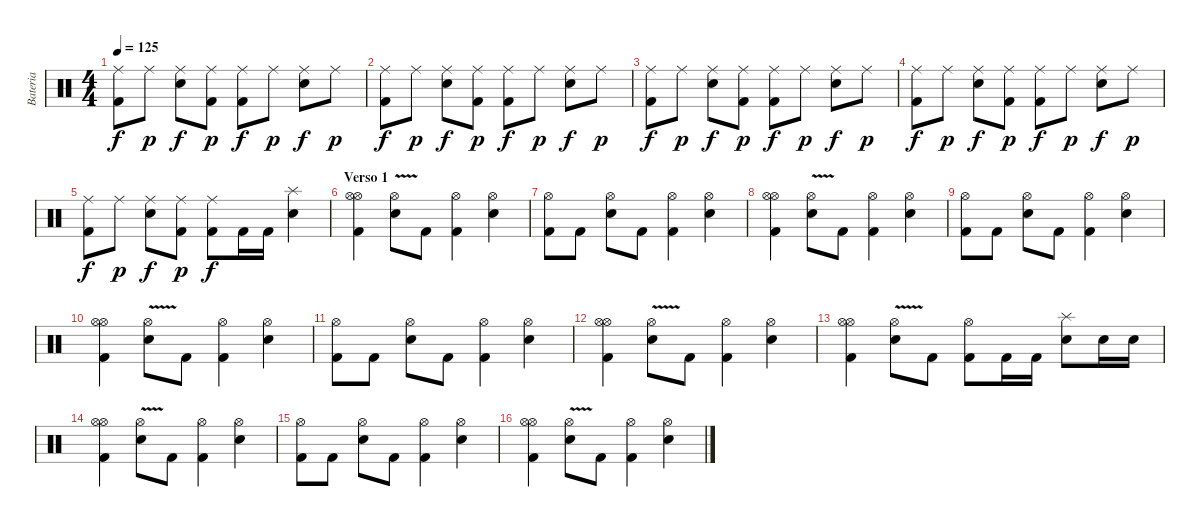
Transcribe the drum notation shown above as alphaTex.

\track ("Bateria" "Bateria") {instrument percussion}
\staff {score}
\articulation defaults
\ts (4 4)
\tempo 125
\clef neutral
\ks c
("Ride (middle)" "Kick (hit) 2").8{dy f} "Ride (middle)".8{dy p} ("Ride (middle)" "Electric Snare (hit)").8{dy f} ("Ride (middle)" "Kick (hit) 2").8{dy p} ("Ride (middle)" "Kick (hit) 2").8{dy f} "Ride (middle)".8{dy p} ("Ride (middle)" "Electric Snare (hit)").8{dy f} "Ride (middle)".8{dy p} |
("Ride (middle)" "Kick (hit) 2").8{dy f} "Ride (middle)".8{dy p} ("Ride (middle)" "Electric Snare (hit)").8{dy f} ("Ride (middle)" "Kick (hit) 2").8{dy p} ("Ride (middle)" "Kick (hit) 2").8{dy f} "Ride (middle)".8{dy p} ("Ride (middle)" "Electric Snare (hit)").8{dy f} "Ride (middle)".8{dy p} |
("Ride (middle)" "Kick (hit) 2").8{dy f} "Ride (middle)".8{dy p} ("Ride (middle)" "Electric Snare (hit)").8{dy f} ("Ride (middle)" "Kick (hit) 2").8{dy p} ("Ride (middle)" "Kick (hit) 2").8{dy f} "Ride (middle)".8{dy p} ("Ride (middle)" "Electric Snare (hit)").8{dy f} "Ride (middle)".8{dy p} |
("Ride (middle)" "Kick (hit) 2").8{dy f} "Ride (middle)".8{dy p} ("Ride (middle)" "Electric Snare (hit)").8{dy f} ("Ride (middle)" "Kick (hit) 2").8{dy p} ("Ride (middle)" "Kick (hit) 2").8{dy f} "Ride (middle)".8{dy p} ("Ride (middle)" "Electric Snare (hit)").8{dy f} "Ride (middle)".8{dy p} |
("Ride (middle)" "Kick (hit) 2").8{dy f} "Ride (middle)".8{dy p} ("Ride (middle)" "Electric Snare (hit)").8{dy f} ("Ride (middle)" "Kick (hit) 2").8{dy p} ("Ride (middle)" "Kick (hit) 2").8{dy f} "Kick (hit) 2".16 "Kick (hit) 2".16 ("Splash (hit)" "Electric Snare (hit)").4 |
\section ("" "Verso 1")
("Hi-Hat (open)" "Hi-Hat (open)" "Kick (hit) 2").4 ("Hi-Hat (open)"{v} "Electric Snare (hit)").8 "Kick (hit) 2".8 ("Hi-Hat (open)" "Kick (hit) 2").4 ("Electric Snare (hit)" "Hi-Hat (open)").4 |
("Hi-Hat (open)" "Kick (hit) 2").8 "Kick (hit) 2".8 ("Hi-Hat (open)" "Electric Snare (hit)").8 "Kick (hit) 2".8 ("Hi-Hat (open)" "Kick (hit) 2").4 ("Electric Snare (hit)" "Hi-Hat (open)").4 |
("Hi-Hat (open)" "Hi-Hat (open)" "Kick (hit) 2").4 ("Hi-Hat (open)"{v} "Electric Snare (hit)").8 "Kick (hit) 2".8 ("Hi-Hat (open)" "Kick (hit) 2").4 ("Electric Snare (hit)" "Hi-Hat (open)").4 |
("Hi-Hat (open)" "Kick (hit) 2").8 "Kick (hit) 2".8 ("Hi-Hat (open)" "Electric Snare (hit)").8 "Kick (hit) 2".8 ("Hi-Hat (open)" "Kick (hit) 2").4 ("Electric Snare (hit)" "Hi-Hat (open)").4 |
("Hi-Hat (open)" "Hi-Hat (open)" "Kick (hit) 2").4 ("Hi-Hat (open)"{v} "Electric Snare (hit)").8 "Kick (hit) 2".8 ("Hi-Hat (open)" "Kick (hit) 2").4 ("Electric Snare (hit)" "Hi-Hat (open)").4 |
("Hi-Hat (open)" "Kick (hit) 2").8 "Kick (hit) 2".8 ("Hi-Hat (open)" "Electric Snare (hit)").8 "Kick (hit) 2".8 ("Hi-Hat (open)" "Kick (hit) 2").4 ("Electric Snare (hit)" "Hi-Hat (open)").4 |
("Hi-Hat (open)" "Hi-Hat (open)" "Kick (hit) 2").4 ("Hi-Hat (open)"{v} "Electric Snare (hit)").8 "Kick (hit) 2".8 ("Hi-Hat (open)" "Kick (hit) 2").4 ("Electric Snare (hit)" "Hi-Hat (open)").4 |
("Hi-Hat (open)" "Hi-Hat (open)" "Kick (hit) 2").4 ("Hi-Hat (open)"{v} "Electric Snare (hit)").8 "Kick (hit) 2".8 ("Hi-Hat (open)" "Kick (hit) 2").8 "Kick (hit) 2".16 "Kick (hit) 2".16 ("Electric Snare (hit)" "Splash (hit)").8 "Electric Snare (hit)".16 "Electric Snare (hit)".16 |
("Hi-Hat (open)" "Hi-Hat (open)" "Kick (hit) 2").4 ("Hi-Hat (open)"{v} "Electric Snare (hit)").8 "Kick (hit) 2".8 ("Hi-Hat (open)" "Kick (hit) 2").4 ("Electric Snare (hit)" "Hi-Hat (open)").4 |
("Hi-Hat (open)" "Kick (hit) 2").8 "Kick (hit) 2".8 ("Hi-Hat (open)" "Electric Snare (hit)").8 "Kick (hit) 2".8 ("Hi-Hat (open)" "Kick (hit) 2").4 ("Electric Snare (hit)" "Hi-Hat (open)").4 |
("Hi-Hat (open)" "Hi-Hat (open)" "Kick (hit) 2").4 ("Hi-Hat (open)"{v} "Electric Snare (hit)").8 "Kick (hit) 2".8 ("Hi-Hat (open)" "Kick (hit) 2").4 ("Electric Snare (hit)" "Hi-Hat (open)").4
